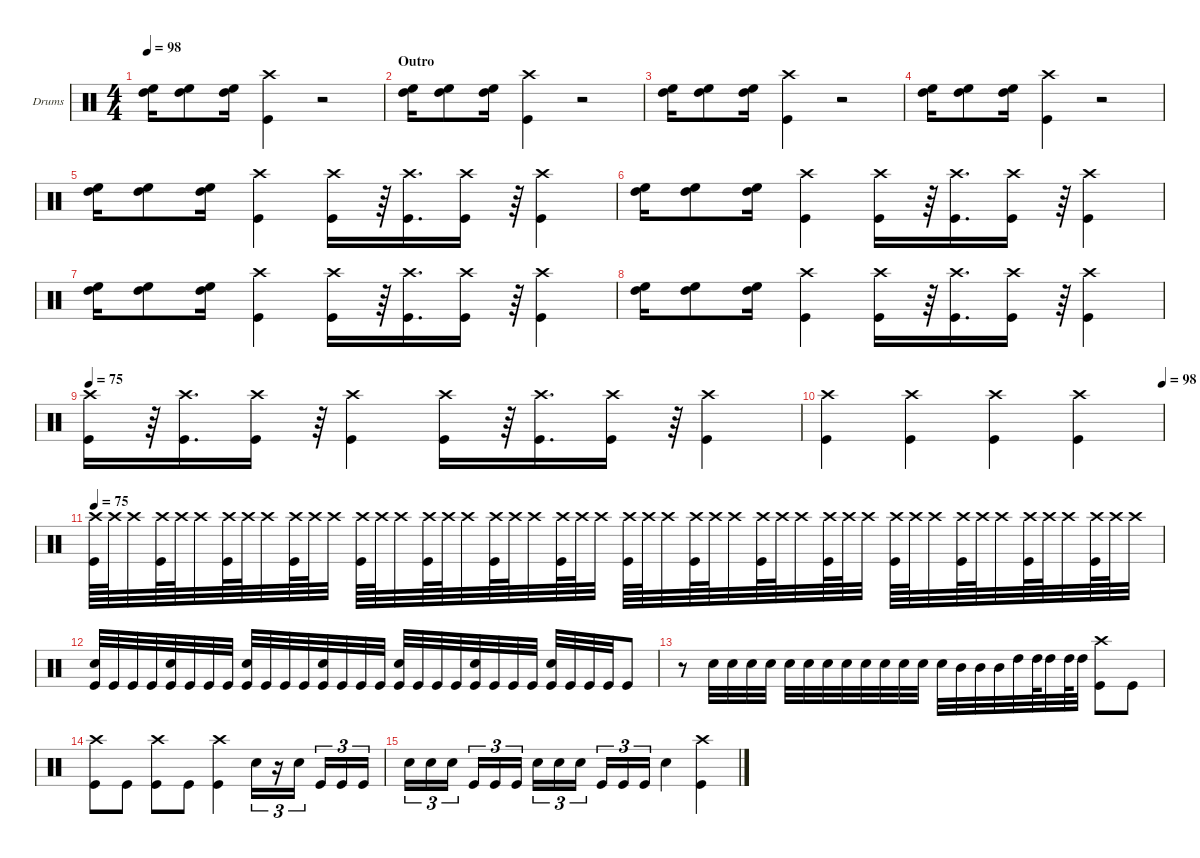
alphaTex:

\hideDynamics
\bracketExtendMode groupsimilarinstruments
\firstSystemTrackNameOrientation horizontal
\otherSystemsTrackNameOrientation horizontal
\track ("Drumkit" "Drums") {multiBarRest instrument percussion}
\staff {score}
\articulation defaults
\ts (4 4)
\tempo 98
\clef neutral
\ks c
("High Tom (hit)" "High Floor Tom (hit)").16{dy f} ("High Floor Tom (hit)" "High Tom (hit)").8 ("High Floor Tom (hit)" "High Tom (hit)").16 ("Crash high (hit)" "Kick (hit)").4 r.2 |
\section ("" "Outro")
("High Tom (hit)" "High Floor Tom (hit)").16 ("High Floor Tom (hit)" "High Tom (hit)").8 ("High Floor Tom (hit)" "High Tom (hit)").16 ("Crash high (hit)" "Kick (hit)").4 r.2 |
("High Tom (hit)" "High Floor Tom (hit)").16 ("High Floor Tom (hit)" "High Tom (hit)").8 ("High Floor Tom (hit)" "High Tom (hit)").16 ("Crash high (hit)" "Kick (hit)").4 r.2 |
("High Tom (hit)" "High Floor Tom (hit)").16 ("High Floor Tom (hit)" "High Tom (hit)").8 ("High Floor Tom (hit)" "High Tom (hit)").16 ("Crash high (hit)" "Kick (hit)").4 r.2 |
("High Tom (hit)" "High Floor Tom (hit)").16 ("High Floor Tom (hit)" "High Tom (hit)").8 ("High Floor Tom (hit)" "High Tom (hit)").16 ("Crash high (hit)" "Kick (hit)").4 ("Kick (hit)" "Crash high (hit)").16 r.64 ("Kick (hit)" "Crash high (hit)").16{d} ("Kick (hit)" "Crash high (hit)").16 r.64 ("Kick (hit)" "Crash high (hit)").4 |
("High Tom (hit)" "High Floor Tom (hit)").16 ("High Floor Tom (hit)" "High Tom (hit)").8 ("High Floor Tom (hit)" "High Tom (hit)").16 ("Crash high (hit)" "Kick (hit)").4 ("Kick (hit)" "Crash high (hit)").16 r.64 ("Kick (hit)" "Crash high (hit)").16{d} ("Kick (hit)" "Crash high (hit)").16 r.64 ("Kick (hit)" "Crash high (hit)").4 |
("High Tom (hit)" "High Floor Tom (hit)").16 ("High Floor Tom (hit)" "High Tom (hit)").8 ("High Floor Tom (hit)" "High Tom (hit)").16 ("Crash high (hit)" "Kick (hit)").4 ("Kick (hit)" "Crash high (hit)").16 r.64 ("Kick (hit)" "Crash high (hit)").16{d} ("Kick (hit)" "Crash high (hit)").16 r.64 ("Kick (hit)" "Crash high (hit)").4 |
("High Tom (hit)" "High Floor Tom (hit)").16 ("High Floor Tom (hit)" "High Tom (hit)").8 ("High Floor Tom (hit)" "High Tom (hit)").16 ("Crash high (hit)" "Kick (hit)").4 ("Kick (hit)" "Crash high (hit)").16 r.64 ("Kick (hit)" "Crash high (hit)").16{d} ("Kick (hit)" "Crash high (hit)").16 r.64 ("Kick (hit)" "Crash high (hit)").4 |
\tempo 75
("Kick (hit)" "Crash high (hit)").16 r.64 ("Kick (hit)" "Crash high (hit)").16{d} ("Kick (hit)" "Crash high (hit)").16 r.64 ("Kick (hit)" "Crash high (hit)").4 ("Kick (hit)" "Crash high (hit)").16 r.64 ("Kick (hit)" "Crash high (hit)").16{d} ("Kick (hit)" "Crash high (hit)").16 r.64 ("Kick (hit)" "Crash high (hit)").4 |
\tempo (98 1)
("Kick (hit)" "Crash high (hit)").4 ("Kick (hit)" "Crash high (hit)").4 ("Kick (hit)" "Crash high (hit)").4 ("Kick (hit)" "Crash high (hit)").4 |
\tempo 75
("Crash high (hit)" "Kick (hit)").64 "Crash high (hit)".64 "Crash high (hit)".32 ("Crash high (hit)" "Kick (hit)").64 "Crash high (hit)".64 "Crash high (hit)".32 ("Crash high (hit)" "Kick (hit)").64 "Crash high (hit)".64 "Crash high (hit)".32 ("Crash high (hit)" "Kick (hit)").64 "Crash high (hit)".64 "Crash high (hit)".32 ("Crash high (hit)" "Kick (hit)").64 "Crash high (hit)".64 "Crash high (hit)".32 ("Crash high (hit)" "Kick (hit)").64 "Crash high (hit)".64 "Crash high (hit)".32 ("Crash high (hit)" "Kick (hit)").64 "Crash high (hit)".64 "Crash high (hit)".32 ("Crash high (hit)" "Kick (hit)").64 "Crash high (hit)".64 "Crash high (hit)".32 ("Crash high (hit)" "Kick (hit)").64 "Crash high (hit)".64 "Crash high (hit)".32 ("Crash high (hit)" "Kick (hit)").64 "Crash high (hit)".64 "Crash high (hit)".32 ("Crash high (hit)" "Kick (hit)").64 "Crash high (hit)".64 "Crash high (hit)".32 ("Crash high (hit)" "Kick (hit)").64 "Crash high (hit)".64 "Crash high (hit)".32 ("Crash high (hit)" "Kick (hit)").64 "Crash high (hit)".64 "Crash high (hit)".32 ("Crash high (hit)" "Kick (hit)").64 "Crash high (hit)".64 "Crash high (hit)".32 ("Crash high (hit)" "Kick (hit)").64 "Crash high (hit)".64 "Crash high (hit)".32 ("Crash high (hit)" "Kick (hit)").64 "Crash high (hit)".64 "Crash high (hit)".32 |
("Snare (hit) 2" "Kick (hit)").32 "Kick (hit)".32 "Kick (hit)".32 "Kick (hit)".32 ("Snare (hit) 2" "Kick (hit)").32 "Kick (hit)".32 "Kick (hit)".32 "Kick (hit)".32 ("Snare (hit) 2" "Kick (hit)").32 "Kick (hit)".32 "Kick (hit)".32 "Kick (hit)".32 ("Snare (hit) 2" "Kick (hit)").32 "Kick (hit)".32 "Kick (hit)".32 "Kick (hit)".32 ("Snare (hit) 2" "Kick (hit)").32 "Kick (hit)".32 "Kick (hit)".32 "Kick (hit)".32 ("Snare (hit) 2" "Kick (hit)").32 "Kick (hit)".32 "Kick (hit)".32 "Kick (hit)".32 ("Kick (hit)" "Snare (hit) 2").32 "Kick (hit)".32 "Kick (hit)".32 "Kick (hit)".32 "Kick (hit)".8 |
r.8 "Snare (hit) 2".32 "Snare (hit) 2".32 "Snare (hit) 2".32 "Snare (hit) 2".32 "Snare (hit) 2".32 "Snare (hit) 2".32 "Snare (hit) 2".32 "Snare (hit) 2".32 "Snare (hit) 2".32 "Snare (hit) 2".32 "Snare (hit) 2".32 "Snare (hit) 2".32 "Snare (hit) 2".32 "Mid Tom (hit)".32 "Mid Tom (hit)".32 "Mid Tom (hit)".32 "High Tom (hit)".32 "High Tom (hit)".64 "High Tom (hit)".32 "High Tom (hit)".64 "High Tom (hit)".32 ("Kick (hit)" "Crash high (hit)").8 "Kick (hit)".8 |
("Kick (hit)" "Crash high (hit)").8 "Kick (hit)".8 ("Kick (hit)" "Crash high (hit)").8 "Kick (hit)".8 ("Kick (hit)" "Crash high (hit)").4 "Snare (hit) 2".16{tu (3 2)} r.16{tu (3 2)} "Snare (hit) 2".16{tu (3 2)} "Kick (hit)".16{tu (3 2)} "Kick (hit)".16{tu (3 2)} "Kick (hit)".16{tu (3 2)} |
"Snare (hit) 2".16{tu (3 2)} "Snare (hit) 2".16{tu (3 2)} "Snare (hit) 2".16{tu (3 2)} "Kick (hit)".16{tu (3 2)} "Kick (hit)".16{tu (3 2)} "Kick (hit)".16{tu (3 2)} "Snare (hit) 2".16{tu (3 2)} "Snare (hit) 2".16{tu (3 2)} "Snare (hit) 2".16{tu (3 2)} "Kick (hit)".16{tu (3 2)} "Kick (hit)".16{tu (3 2)} "Kick (hit)".16{tu (3 2)} "Snare (hit) 2".4 ("Crash high (hit)" "Kick (hit)").4
